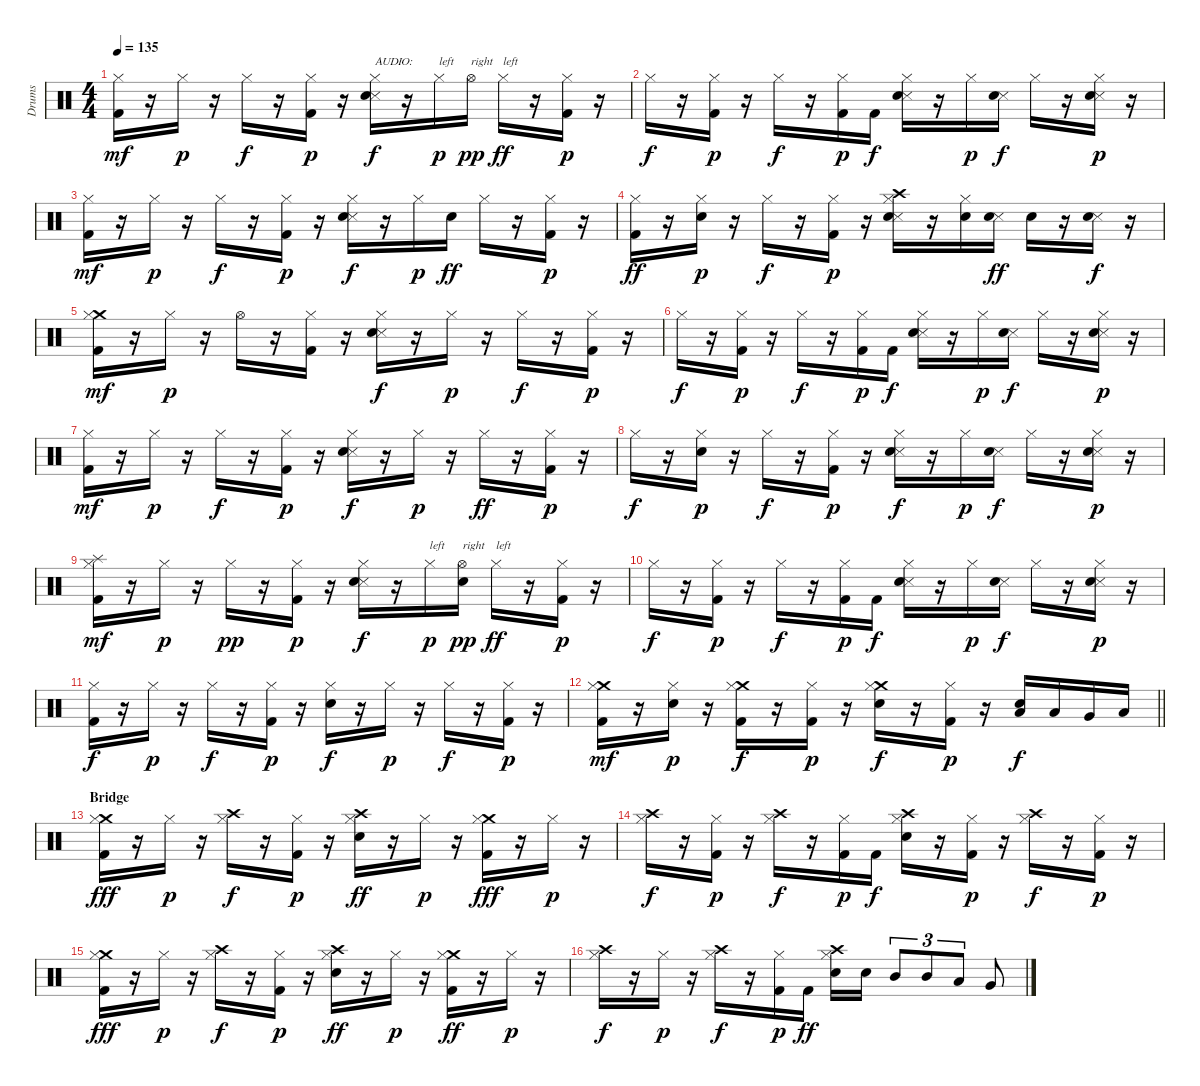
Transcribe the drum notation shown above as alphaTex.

\track ("Drums" "Drums") {instrument percussion}
\staff {score}
\articulation defaults
\ts (4 4)
\tempo 135
\clef neutral
\ks c
("Kick (hit) 2" "Hi-Hat (closed)").16{dy mf} r.16 "Hi-Hat (closed)".16{dy p} r.16 "Hi-Hat (closed)".16{dy f} r.16 ("Kick (hit) 2" "Hi-Hat (closed)").16{dy p} r.16 ("Snare (side stick) 3" "Electric Snare (hit)" "Hi-Hat (closed)").16{txt "AUDIO:" dy f} r.16 "Hi-Hat (closed)".16{txt "left" dy p} "Hi-Hat (open)".16{txt "right" dy pp} "Hi-Hat (closed)".16{txt "left" dy ff} r.16 ("Kick (hit) 2" "Hi-Hat (closed)").16{dy p} r.16 |
"Hi-Hat (closed)".16{dy f} r.16 ("Kick (hit) 2" "Hi-Hat (closed)").16{dy p} r.16 "Hi-Hat (closed)".16{dy f} r.16 ("Kick (hit) 2" "Hi-Hat (closed)").16{dy p} "Kick (hit) 2".16{dy f} ("Snare (side stick) 3" "Electric Snare (hit)" "Hi-Hat (closed)").16 r.16 "Hi-Hat (closed)".16{dy p} ("Snare (side stick) 3" "Electric Snare (hit)").16{dy f} "Hi-Hat (closed)".16 r.16 ("Snare (side stick) 3" "Electric Snare (hit)" "Hi-Hat (closed)").16{dy p} r.16 |
("Kick (hit) 2" "Hi-Hat (closed)").16{dy mf} r.16 "Hi-Hat (closed)".16{dy p} r.16 "Hi-Hat (closed)".16{dy f} r.16 ("Kick (hit) 2" "Hi-Hat (closed)").16{dy p} r.16 ("Snare (side stick) 3" "Electric Snare (hit)" "Hi-Hat (closed)").16{dy f} r.16 "Hi-Hat (closed)".16{dy p} "Electric Snare (hit)".16{dy ff} "Hi-Hat (closed)".16 r.16 ("Kick (hit) 2" "Hi-Hat (closed)").16{dy p} r.16 |
("Kick (hit) 2" "Hi-Hat (closed)").16{dy ff} r.16 ("Electric Snare (hit)" "Hi-Hat (closed)").16{dy p} r.16 "Hi-Hat (closed)".16{dy f} r.16 ("Kick (hit) 2" "Hi-Hat (closed)").16{dy p} r.16 ("Crash high (hit)" "Snare (side stick) 3" "Electric Snare (hit)" "Hi-Hat (closed)").16 r.16 ("Electric Snare (hit)" "Hi-Hat (closed)").16 ("Snare (side stick) 3" "Electric Snare (hit)").16{dy ff} "Electric Snare (hit)".16 r.16 ("Snare (side stick) 3" "Electric Snare (hit)").16{dy f} r.16 |
("Crash medium (hit)" "Kick (hit) 2" "Hi-Hat (closed)").16{dy mf} r.16 "Hi-Hat (closed)".16{dy p} r.16 "Hi-Hat (open)".16 r.16 ("Kick (hit) 2" "Hi-Hat (closed)").16 r.16 ("Snare (side stick) 3" "Electric Snare (hit)" "Hi-Hat (closed)").16{dy f} r.16 "Hi-Hat (closed)".16{dy p} r.16 "Hi-Hat (closed)".16{dy f} r.16 ("Kick (hit) 2" "Hi-Hat (closed)").16{dy p} r.16 |
"Hi-Hat (closed)".16{dy f} r.16 ("Kick (hit) 2" "Hi-Hat (closed)").16{dy p} r.16 "Hi-Hat (closed)".16{dy f} r.16 ("Kick (hit) 2" "Hi-Hat (closed)").16{dy p} "Kick (hit) 2".16{dy f} ("Snare (side stick) 3" "Electric Snare (hit)" "Hi-Hat (closed)").16 r.16 "Hi-Hat (closed)".16{dy p} ("Snare (side stick) 3" "Electric Snare (hit)").16{dy f} "Hi-Hat (closed)".16 r.16 ("Snare (side stick) 3" "Electric Snare (hit)" "Hi-Hat (closed)").16{dy p} r.16 |
("Kick (hit) 2" "Hi-Hat (closed)").16{dy mf} r.16 "Hi-Hat (closed)".16{dy p} r.16 "Hi-Hat (closed)".16{dy f} r.16 ("Kick (hit) 2" "Hi-Hat (closed)").16{dy p} r.16 ("Snare (side stick) 3" "Electric Snare (hit)" "Hi-Hat (closed)").16{dy f} r.16 "Hi-Hat (closed)".16{dy p} r.16 "Hi-Hat (closed)".16{dy ff} r.16 ("Kick (hit) 2" "Hi-Hat (closed)").16{dy p} r.16 |
"Hi-Hat (closed)".16{dy f} r.16 ("Electric Snare (hit)" "Hi-Hat (closed)").16{dy p} r.16 "Hi-Hat (closed)".16{dy f} r.16 ("Kick (hit) 2" "Hi-Hat (closed)").16{dy p} r.16 ("Snare (side stick) 3" "Electric Snare (hit)" "Hi-Hat (closed)").16{dy f} r.16 "Hi-Hat (closed)".16{dy p} ("Snare (side stick) 3" "Electric Snare (hit)").16{dy f} "Hi-Hat (closed)".16 r.16 ("Snare (side stick) 3" "Electric Snare (hit)" "Hi-Hat (closed)").16{dy p} r.16 |
("Splash (hit)" "Kick (hit) 2" "Hi-Hat (closed)").16{dy mf} r.16 "Hi-Hat (closed)".16{dy p} r.16 "Hi-Hat (closed)".16{dy pp} r.16 ("Kick (hit) 2" "Hi-Hat (closed)").16{dy p} r.16 ("Snare (side stick) 3" "Electric Snare (hit)" "Hi-Hat (closed)").16{dy f} r.16 "Hi-Hat (closed)".16{txt "left" dy p} ("Electric Snare (hit)" "Hi-Hat (open)").16{txt "right" dy pp} "Hi-Hat (closed)".16{txt "left" dy ff} r.16 ("Kick (hit) 2" "Hi-Hat (closed)").16{dy p} r.16 |
"Hi-Hat (closed)".16{dy f} r.16 ("Kick (hit) 2" "Hi-Hat (closed)").16{dy p} r.16 "Hi-Hat (closed)".16{dy f} r.16 ("Kick (hit) 2" "Hi-Hat (closed)").16{dy p} "Kick (hit) 2".16{dy f} ("Snare (side stick) 3" "Electric Snare (hit)" "Hi-Hat (closed)").16 r.16 "Hi-Hat (closed)".16{dy p} ("Snare (side stick) 3" "Electric Snare (hit)").16{dy f} "Hi-Hat (closed)".16 r.16 ("Snare (side stick) 3" "Electric Snare (hit)" "Hi-Hat (closed)").16{dy p} r.16 |
("Kick (hit) 2" "Hi-Hat (closed)").16{dy f} r.16 "Hi-Hat (closed)".16{dy p} r.16 "Hi-Hat (closed)".16{dy f} r.16 ("Kick (hit) 2" "Hi-Hat (closed)").16{dy p} r.16 ("Electric Snare (hit)" "Hi-Hat (closed)").16{dy f} r.16 "Hi-Hat (closed)".16{dy p} r.16 "Hi-Hat (closed)".16{dy f} r.16 ("Kick (hit) 2" "Hi-Hat (closed)").16{dy p} r.16 |
\barLineRight lightlight
("Crash medium (hit)" "Kick (hit) 2" "Hi-Hat (closed)").16{dy mf} r.16 ("Electric Snare (hit)" "Hi-Hat (closed)").16{dy p} r.16 ("Crash medium (hit)" "Kick (hit) 2" "Hi-Hat (closed)").16{dy f} r.16 ("Kick (hit) 2" "Hi-Hat (closed)").16{dy p} r.16 ("Crash medium (hit)" "Electric Snare (hit)" "Hi-Hat (closed)").16{dy f} r.16 ("Kick (hit) 2" "Hi-Hat (closed)").16{dy p} r.16 ("Low Tom (hit)" "Electric Snare (hit)").16{dy f} "Low Tom (hit)".16 "Very Low Tom (hit)".16 "Low Floor Tom (hit)".16 |
\section ("" "Bridge")
("Crash medium (hit)" "Kick (hit) 2" "Hi-Hat (closed)").16{dy fff} r.16 "Hi-Hat (closed)".16{dy p} r.16 ("Crash high (hit)" "Hi-Hat (closed)").16{dy f} r.16 ("Kick (hit) 2" "Hi-Hat (closed)").16{dy p} r.16 ("Crash high (hit)" "Electric Snare (hit)" "Hi-Hat (closed)").16{dy ff} r.16 "Hi-Hat (closed)".16{dy p} r.16 ("Crash medium (hit)" "Kick (hit) 2" "Hi-Hat (closed)").16{dy fff} r.16 "Hi-Hat (closed)".16{dy p} r.16 |
("Crash high (hit)" "Hi-Hat (closed)").16{dy f} r.16 ("Kick (hit) 2" "Hi-Hat (closed)").16{dy p} r.16 ("Crash high (hit)" "Hi-Hat (closed)").16{dy f} r.16 ("Kick (hit) 2" "Hi-Hat (closed)").16{dy p} "Kick (hit) 2".16{dy f} ("Crash high (hit)" "Electric Snare (hit)" "Hi-Hat (closed)").16 r.16 ("Kick (hit) 2" "Hi-Hat (closed)").16{dy p} r.16 ("Crash high (hit)" "Hi-Hat (closed)").16{dy f} r.16 ("Kick (hit) 2" "Hi-Hat (closed)").16{dy p} r.16 |
("Crash medium (hit)" "Kick (hit) 2" "Hi-Hat (closed)").16{dy fff} r.16 "Hi-Hat (closed)".16{dy p} r.16 ("Crash high (hit)" "Hi-Hat (closed)").16{dy f} r.16 ("Kick (hit) 2" "Hi-Hat (closed)").16{dy p} r.16 ("Crash high (hit)" "Electric Snare (hit)" "Hi-Hat (closed)").16{dy ff} r.16 "Hi-Hat (closed)".16{dy p} r.16 ("Crash medium (hit)" "Kick (hit) 2" "Hi-Hat (closed)").16{dy ff} r.16 "Hi-Hat (closed)".16{dy p} r.16 |
("Crash high (hit)" "Hi-Hat (closed)").16{dy f} r.16 "Hi-Hat (closed)".16{dy p} r.16 ("Crash high (hit)" "Hi-Hat (closed)").16{dy f} r.16 ("Kick (hit) 2" "Hi-Hat (closed)").16{dy p} "Kick (hit) 2".16{dy ff} ("Crash high (hit)" "Electric Snare (hit)" "Hi-Hat (closed)").16 "Electric Snare (hit)".16 "Mid Tom (hit)".8{tu (3 2)} "Mid Tom (hit)".8{tu (3 2)} "Low Tom (hit)".8{tu (3 2)} "Very Low Tom (hit)".8
